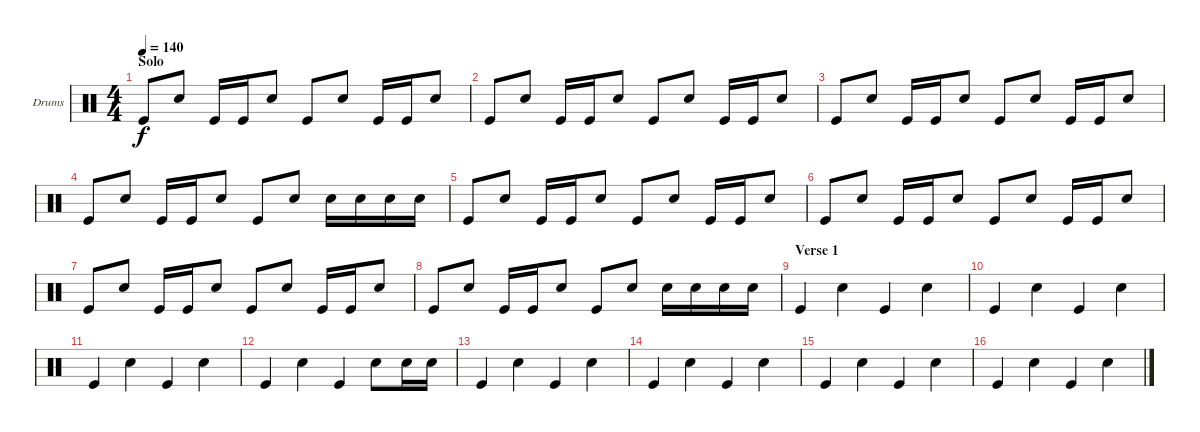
\bracketExtendMode groupsimilarinstruments
\firstSystemTrackNameOrientation horizontal
\otherSystemsTrackNameOrientation horizontal
\track ("Drumkit" "Drums") {instrument percussion}
\staff {score}
\articulation defaults
\ts (4 4)
\section ("" "Solo")
\tempo 140
\clef neutral
\ks c "Kick (hit)".8{dy f} "Snare (hit) 2".8 "Kick (hit)".16 "Kick (hit)".16 "Snare (hit) 2".8 "Kick (hit)".8 "Snare (hit) 2".8 "Kick (hit)".16 "Kick (hit)".16 "Snare (hit) 2".8
|
"Kick (hit)".8 "Snare (hit) 2".8 "Kick (hit)".16 "Kick (hit)".16 "Snare (hit) 2".8 "Kick (hit)".8 "Snare (hit) 2".8 "Kick (hit)".16 "Kick (hit)".16 "Snare (hit) 2".8 |
"Kick (hit)".8 "Snare (hit) 2".8 "Kick (hit)".16 "Kick (hit)".16 "Snare (hit) 2".8 "Kick (hit)".8 "Snare (hit) 2".8 "Kick (hit)".16 "Kick (hit)".16 "Snare (hit) 2".8 |
"Kick (hit)".8 "Snare (hit) 2".8 "Kick (hit)".16 "Kick (hit)".16 "Snare (hit) 2".8 "Kick (hit)".8 "Snare (hit) 2".8 "Snare (hit) 2".16 "Snare (hit) 2".16 "Snare (hit) 2".16 "Snare (hit) 2".16 |
"Kick (hit)".8 "Snare (hit) 2".8 "Kick (hit)".16 "Kick (hit)".16 "Snare (hit) 2".8 "Kick (hit)".8 "Snare (hit) 2".8 "Kick (hit)".16 "Kick (hit)".16 "Snare (hit) 2".8 |
"Kick (hit)".8 "Snare (hit) 2".8 "Kick (hit)".16 "Kick (hit)".16 "Snare (hit) 2".8 "Kick (hit)".8 "Snare (hit) 2".8 "Kick (hit)".16 "Kick (hit)".16 "Snare (hit) 2".8 |
"Kick (hit)".8 "Snare (hit) 2".8 "Kick (hit)".16 "Kick (hit)".16 "Snare (hit) 2".8 "Kick (hit)".8 "Snare (hit) 2".8 "Kick (hit)".16 "Kick (hit)".16 "Snare (hit) 2".8 |
"Kick (hit)".8 "Snare (hit) 2".8 "Kick (hit)".16 "Kick (hit)".16 "Snare (hit) 2".8 "Kick (hit)".8 "Snare (hit) 2".8 "Snare (hit) 2".16 "Snare (hit) 2".16 "Snare (hit) 2".16 "Snare (hit) 2".16 |
\section ("" "Verse 1")
"Kick (hit)".4 "Snare (hit) 2".4 "Kick (hit)".4 "Snare (hit) 2".4 |
"Kick (hit)".4 "Snare (hit) 2".4 "Kick (hit)".4 "Snare (hit) 2".4 |
"Kick (hit)".4 "Snare (hit) 2".4 "Kick (hit)".4 "Snare (hit) 2".4 |
"Kick (hit)".4 "Snare (hit) 2".4 "Kick (hit)".4 "Snare (hit) 2".8 "Snare (hit) 2".16 "Snare (hit) 2".16 |
"Kick (hit)".4 "Snare (hit) 2".4 "Kick (hit)".4 "Snare (hit) 2".4 |
"Kick (hit)".4 "Snare (hit) 2".4 "Kick (hit)".4 "Snare (hit) 2".4 |
"Kick (hit)".4 "Snare (hit) 2".4 "Kick (hit)".4 "Snare (hit) 2".4 |
"Kick (hit)".4 "Snare (hit) 2".4 "Kick (hit)".4 "Snare (hit) 2".4
